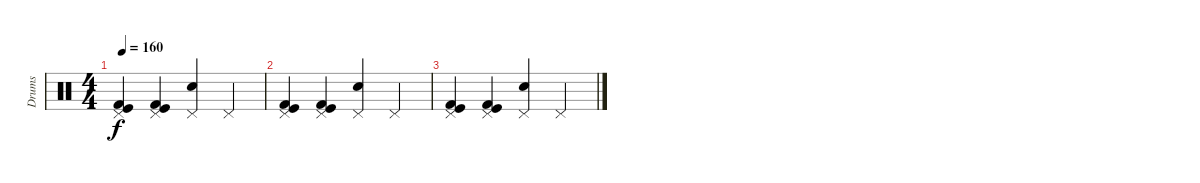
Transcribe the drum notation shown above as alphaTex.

\track ("Drums" "Drums") {instrument percussion}
\staff {score}
\articulation defaults
\ts (4 4)
\tempo 160
\clef neutral
\ks c
("Pedal Hi-Hat (hit)" "Kick (hit)" "Kick (hit) 2").4{dy f} ("Pedal Hi-Hat (hit)" "Kick (hit)" "Kick (hit) 2").4 ("Pedal Hi-Hat (hit)" "Electric Snare (hit)").4 "Pedal Hi-Hat (hit)".4 |
("Pedal Hi-Hat (hit)" "Kick (hit)" "Kick (hit) 2").4 ("Pedal Hi-Hat (hit)" "Kick (hit)" "Kick (hit) 2").4 ("Pedal Hi-Hat (hit)" "Electric Snare (hit)").4 "Pedal Hi-Hat (hit)".4 |
("Pedal Hi-Hat (hit)" "Kick (hit)" "Kick (hit) 2").4 ("Pedal Hi-Hat (hit)" "Kick (hit)" "Kick (hit) 2").4 ("Pedal Hi-Hat (hit)" "Electric Snare (hit)").4 "Pedal Hi-Hat (hit)".4
